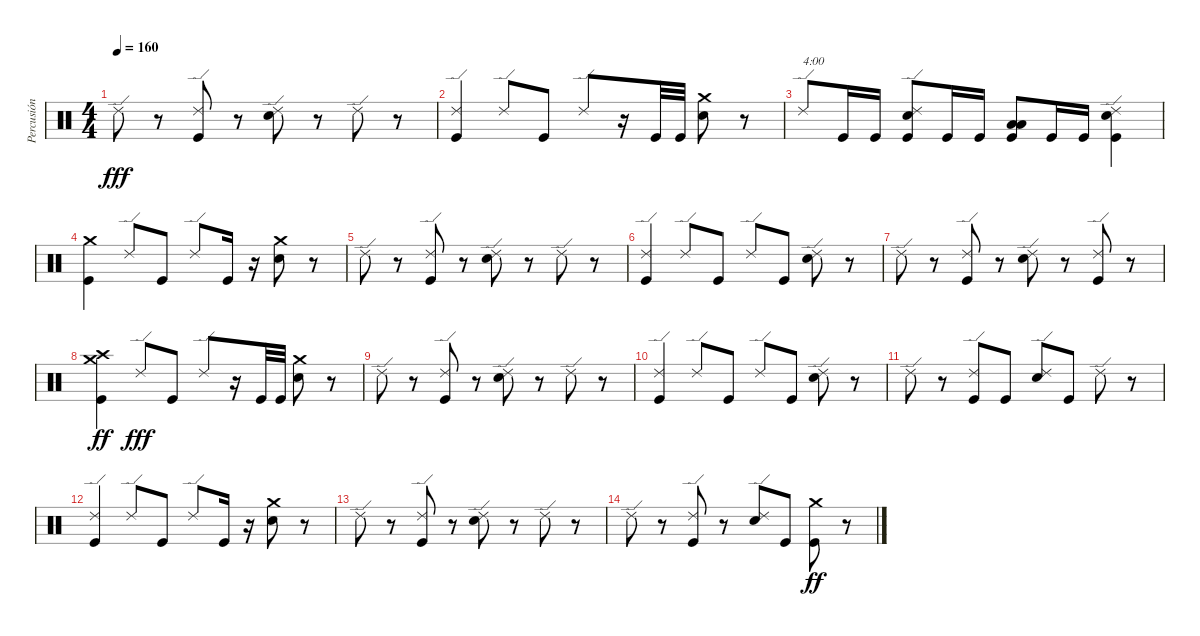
\track ("Percusión" "Percusión") {instrument percussion}
\staff {score}
\articulation defaults
\ts (4 4)
\tempo 160
\clef neutral
\ks c "Ride (edge) 2".8{dy fff}
r.8 ("Kick (hit)" "Ride (edge) 2").8 r.8 ("Electric Snare (hit)" "Ride (edge) 2").8 r.8 "Ride (edge) 2".8 r.8 |
("Kick (hit)" "Ride (edge) 2").4 "Ride (edge) 2".8 "Kick (hit)".8 "Ride (edge) 2".8 r.16 "Kick (hit)".32 "Kick (hit)".32 ("Electric Snare (hit)" "Crash medium (hit)").8 r.8 |
"Ride (edge) 2".8{txt "4:00"} "Kick (hit)".16 "Kick (hit)".16 ("Kick (hit)" "Electric Snare (hit)" "Ride (edge) 2").8 "Kick (hit)".16 "Kick (hit)".16 ("Kick (hit)" "Low Tom (hit)" "Low Floor Tom (hit)").8 "Kick (hit)".16 "Kick (hit)".16 ("Kick (hit)" "Electric Snare (hit)" "Ride (edge) 2").4 |
("Kick (hit)" "Crash medium (hit)").4 "Ride (edge) 2".8 "Kick (hit)".8 "Ride (edge) 2".8 "Kick (hit)".16 r.16 ("Electric Snare (hit)" "Crash medium (hit)").8 r.8 |
"Ride (edge) 2".8 r.8 ("Kick (hit)" "Ride (edge) 2").8 r.8 ("Electric Snare (hit)" "Ride (edge) 2").8 r.8 "Ride (edge) 2".8 r.8 |
("Kick (hit)" "Ride (edge) 2").4 "Ride (edge) 2".8 "Kick (hit)".8 "Ride (edge) 2".8 "Kick (hit)".8 ("Electric Snare (hit)" "Ride (edge) 2").8 r.8 |
"Ride (edge) 2".8 r.8 ("Kick (hit)" "Ride (edge) 2").8 r.8 ("Electric Snare (hit)" "Ride (edge) 2").8 r.8 ("Kick (hit)" "Ride (edge) 2").8 r.8 |
("Kick (hit)" "Crash high (hit)" "Crash medium (hit)").4{dy ff} "Ride (edge) 2".8{dy fff} "Kick (hit)".8 "Ride (edge) 2".8 r.16 "Kick (hit)".32 "Kick (hit)".32 ("Electric Snare (hit)" "Crash medium (hit)").8 r.8 |
"Ride (edge) 2".8 r.8 ("Kick (hit)" "Ride (edge) 2").8 r.8 ("Electric Snare (hit)" "Ride (edge) 2").8 r.8 "Ride (edge) 2".8 r.8 |
("Kick (hit)" "Ride (edge) 2").4 "Ride (edge) 2".8 "Kick (hit)".8 "Ride (edge) 2".8 "Kick (hit)".8 ("Electric Snare (hit)" "Ride (edge) 2").8 r.8 |
"Ride (edge) 2".8 r.8 ("Kick (hit)" "Ride (edge) 2").8 "Kick (hit)".8 ("Electric Snare (hit)" "Ride (edge) 2").8 "Kick (hit)".8 "Ride (edge) 2".8 r.8 |
("Kick (hit)" "Ride (edge) 2").4 "Ride (edge) 2".8 "Kick (hit)".8 "Ride (edge) 2".8 "Kick (hit)".16 r.16 ("Electric Snare (hit)" "Crash medium (hit)").8 r.8 |
"Ride (edge) 2".8 r.8 ("Kick (hit)" "Ride (edge) 2").8 r.8 ("Electric Snare (hit)" "Ride (edge) 2").8 r.8 "Ride (edge) 2".8 r.8 |
"Ride (edge) 2".8 r.8 ("Kick (hit)" "Ride (edge) 2").8 r.8 ("Electric Snare (hit)" "Ride (edge) 2").8 "Kick (hit)".8 ("Kick (hit)" "Crash medium (hit)").8{dy ff} r.8
